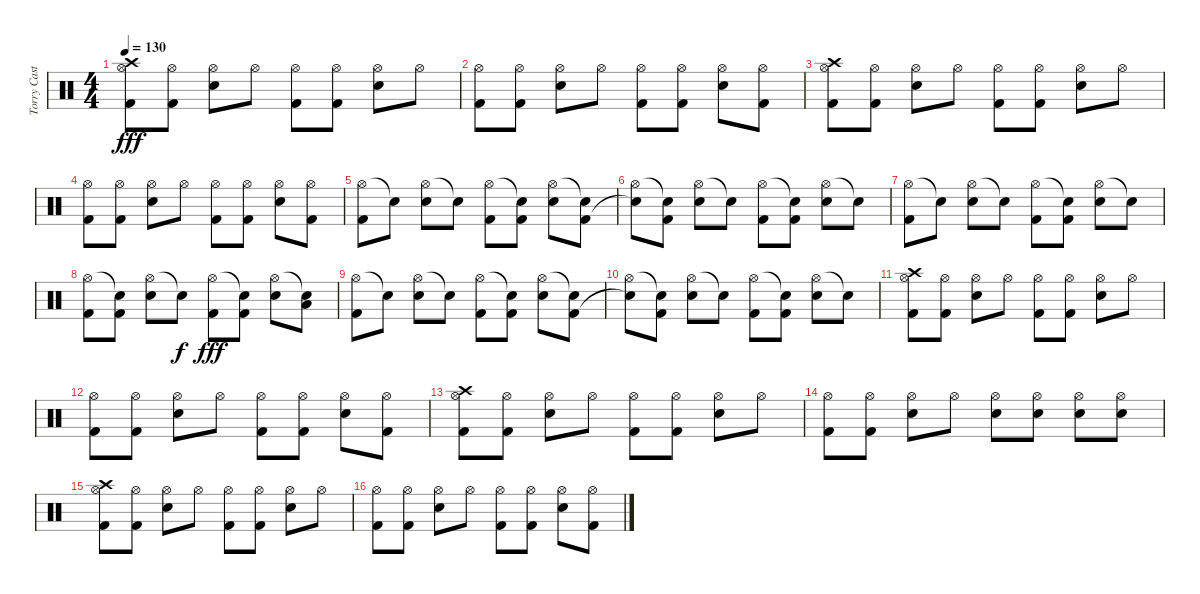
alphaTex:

\track ("Torry Castellano" "Torry Cast") {instrument percussion}
\staff {score}
\articulation defaults
\ts (4 4)
\tempo 130
\clef neutral
\ks c
("Crash high (hit)" "Hi-Hat (open)" "Kick (hit) 2").8{dy fff} ("Hi-Hat (open)" "Kick (hit) 2").8 ("Hi-Hat (open)" "Electric Snare (hit)").8 "Hi-Hat (open)".8 ("Hi-Hat (open)" "Kick (hit) 2").8 ("Hi-Hat (open)" "Kick (hit) 2").8 ("Hi-Hat (open)" "Electric Snare (hit)").8 "Hi-Hat (open)".8 |
("Hi-Hat (open)" "Kick (hit) 2").8 ("Hi-Hat (open)" "Kick (hit) 2").8 ("Hi-Hat (open)" "Electric Snare (hit)").8 "Hi-Hat (open)".8 ("Hi-Hat (open)" "Kick (hit) 2").8 ("Hi-Hat (open)" "Kick (hit) 2").8 ("Hi-Hat (open)" "Electric Snare (hit)").8 ("Hi-Hat (open)" "Kick (hit) 2").8 |
("Crash high (hit)" "Hi-Hat (open)" "Kick (hit) 2").8 ("Hi-Hat (open)" "Kick (hit) 2").8 ("Hi-Hat (open)" "Electric Snare (hit)").8 "Hi-Hat (open)".8 ("Hi-Hat (open)" "Kick (hit) 2").8 ("Hi-Hat (open)" "Kick (hit) 2").8 ("Hi-Hat (open)" "Electric Snare (hit)").8 "Hi-Hat (open)".8 |
("Hi-Hat (open)" "Kick (hit) 2").8 ("Hi-Hat (open)" "Kick (hit) 2").8 ("Hi-Hat (open)" "Electric Snare (hit)").8 "Hi-Hat (open)".8 ("Hi-Hat (open)" "Kick (hit) 2").8 ("Hi-Hat (open)" "Kick (hit) 2").8 ("Hi-Hat (open)" "Electric Snare (hit)").8 ("Hi-Hat (open)" "Kick (hit) 2").8 |
("Hi-Hat (open)" "Kick (hit) 2").8 "Snare (hit)"{t}.8 ("Hi-Hat (open)" "Electric Snare (hit)").8 "Snare (hit)"{t}.8 ("Hi-Hat (open)" "Kick (hit) 2").8 ("Snare (hit)"{t} "Kick (hit) 2").8 ("Hi-Hat (open)" "Electric Snare (hit)").8 ("Snare (hit)"{t} "Kick (hit) 2").8 |
("Hi-Hat (open)" "Snare (hit)"{t}).8 ("Snare (hit)"{t} "Kick (hit) 2").8 ("Hi-Hat (open)" "Electric Snare (hit)").8 "Snare (hit)"{t}.8 ("Hi-Hat (open)" "Kick (hit) 2").8 ("Snare (hit)"{t} "Kick (hit) 2").8 ("Hi-Hat (open)" "Electric Snare (hit)").8 "Snare (hit)"{t}.8 |
("Hi-Hat (open)" "Kick (hit) 2").8 "Snare (hit)"{t}.8 ("Hi-Hat (open)" "Electric Snare (hit)").8 "Snare (hit)"{t}.8 ("Hi-Hat (open)" "Kick (hit) 2").8 ("Snare (hit)"{t} "Kick (hit) 2").8 ("Hi-Hat (open)" "Electric Snare (hit)").8 "Snare (hit)"{t}.8 |
("Hi-Hat (open)" "Kick (hit) 2").8 ("Snare (hit)"{t} "Kick (hit) 2").8 ("Hi-Hat (open)" "Electric Snare (hit)").8 "Snare (hit)"{t}.8{dy f} ("Hi-Hat (open)" "Kick (hit) 2").8{dy fff} ("Snare (hit)"{t} "Kick (hit) 2").8 ("Hi-Hat (open)" "Electric Snare (hit)").8 ("Snare (hit)"{t} "Low Floor Tom (hit)").8 |
("Hi-Hat (open)" "Kick (hit) 2").8 "Snare (hit)"{t}.8 ("Hi-Hat (open)" "Electric Snare (hit)").8 "Snare (hit)"{t}.8 ("Hi-Hat (open)" "Kick (hit) 2").8 ("Snare (hit)"{t} "Kick (hit) 2").8 ("Hi-Hat (open)" "Electric Snare (hit)").8 ("Snare (hit)"{t} "Kick (hit) 2").8 |
("Hi-Hat (open)" "Snare (hit)"{t}).8 ("Snare (hit)"{t} "Kick (hit) 2").8 ("Hi-Hat (open)" "Electric Snare (hit)").8 "Snare (hit)"{t}.8 ("Hi-Hat (open)" "Kick (hit) 2").8 ("Snare (hit)"{t} "Kick (hit) 2").8 ("Hi-Hat (open)" "Electric Snare (hit)").8 "Snare (hit)"{t}.8 |
("Crash high (hit)" "Hi-Hat (open)" "Kick (hit) 2").8 ("Hi-Hat (open)" "Kick (hit) 2").8 ("Hi-Hat (open)" "Electric Snare (hit)").8 "Hi-Hat (open)".8 ("Hi-Hat (open)" "Kick (hit) 2").8 ("Hi-Hat (open)" "Kick (hit) 2").8 ("Hi-Hat (open)" "Electric Snare (hit)").8 "Hi-Hat (open)".8 |
("Hi-Hat (open)" "Kick (hit) 2").8 ("Hi-Hat (open)" "Kick (hit) 2").8 ("Hi-Hat (open)" "Electric Snare (hit)").8 "Hi-Hat (open)".8 ("Hi-Hat (open)" "Kick (hit) 2").8 ("Hi-Hat (open)" "Kick (hit) 2").8 ("Hi-Hat (open)" "Electric Snare (hit)").8 ("Hi-Hat (open)" "Kick (hit) 2").8 |
("Crash high (hit)" "Hi-Hat (open)" "Kick (hit) 2").8 ("Hi-Hat (open)" "Kick (hit) 2").8 ("Hi-Hat (open)" "Electric Snare (hit)").8 "Hi-Hat (open)".8 ("Hi-Hat (open)" "Kick (hit) 2").8 ("Hi-Hat (open)" "Kick (hit) 2").8 ("Hi-Hat (open)" "Electric Snare (hit)").8 "Hi-Hat (open)".8 |
("Hi-Hat (open)" "Kick (hit) 2").8 ("Hi-Hat (open)" "Kick (hit) 2").8 ("Hi-Hat (open)" "Electric Snare (hit)").8 "Hi-Hat (open)".8 ("Hi-Hat (open)" "Electric Snare (hit)").8 ("Hi-Hat (open)" "Electric Snare (hit)").8 ("Hi-Hat (open)" "Electric Snare (hit)").8 ("Hi-Hat (open)" "Electric Snare (hit)").8 |
("Crash high (hit)" "Hi-Hat (open)" "Kick (hit) 2").8 ("Hi-Hat (open)" "Kick (hit) 2").8 ("Hi-Hat (open)" "Electric Snare (hit)").8 "Hi-Hat (open)".8 ("Hi-Hat (open)" "Kick (hit) 2").8 ("Hi-Hat (open)" "Kick (hit) 2").8 ("Hi-Hat (open)" "Electric Snare (hit)").8 "Hi-Hat (open)".8 |
("Hi-Hat (open)" "Kick (hit) 2").8 ("Hi-Hat (open)" "Kick (hit) 2").8 ("Hi-Hat (open)" "Electric Snare (hit)").8 "Hi-Hat (open)".8 ("Hi-Hat (open)" "Kick (hit) 2").8 ("Hi-Hat (open)" "Kick (hit) 2").8 ("Hi-Hat (open)" "Electric Snare (hit)").8 ("Hi-Hat (open)" "Kick (hit) 2").8
